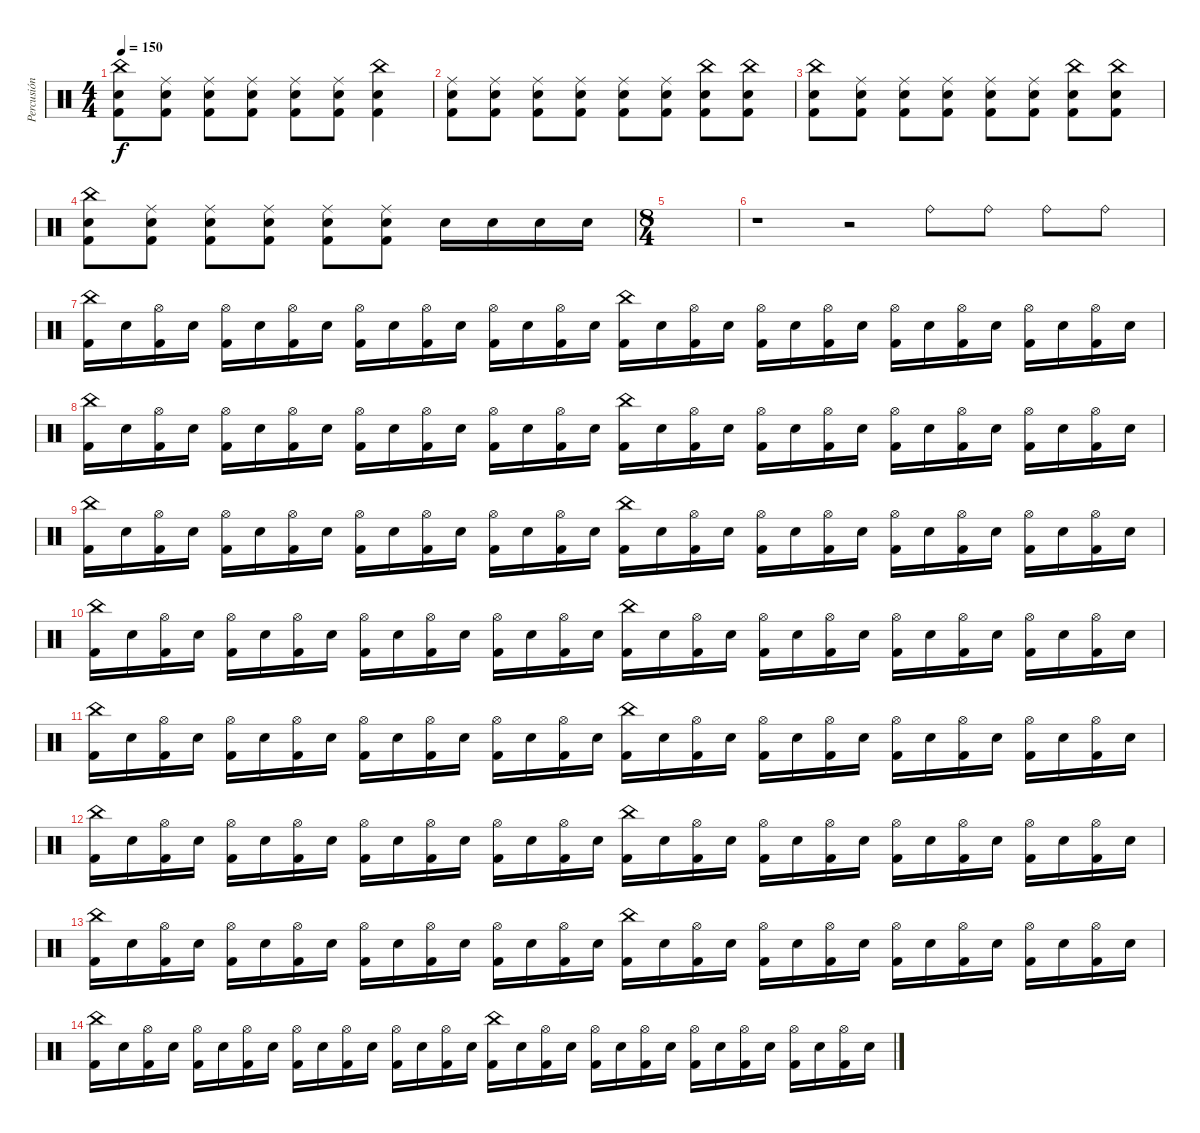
\track ("Percusión" "Percusión") {instrument percussion}
\staff {score}
\articulation defaults
\ts (4 4)
\tempo 150
\clef neutral
\ks c
("China (hit)" "Electric Snare (hit)" "Kick (hit) 2").8{dy f} ("Ride (middle)" "Electric Snare (hit)" "Kick (hit) 2").8 ("Ride (middle)" "Electric Snare (hit)" "Kick (hit) 2").8 ("Ride (middle)" "Electric Snare (hit)" "Kick (hit) 2").8 ("Ride (middle)" "Electric Snare (hit)" "Kick (hit) 2").8 ("Ride (middle)" "Electric Snare (hit)" "Kick (hit) 2").8 ("China (hit)" "Electric Snare (hit)" "Kick (hit) 2").4 |
("Ride (middle)" "Electric Snare (hit)" "Kick (hit) 2").8 ("Ride (middle)" "Electric Snare (hit)" "Kick (hit) 2").8 ("Ride (middle)" "Electric Snare (hit)" "Kick (hit) 2").8 ("Ride (middle)" "Electric Snare (hit)" "Kick (hit) 2").8 ("Ride (middle)" "Electric Snare (hit)" "Kick (hit) 2").8 ("Ride (middle)" "Electric Snare (hit)" "Kick (hit) 2").8 ("China (hit)" "Electric Snare (hit)" "Kick (hit) 2").8 ("China (hit)" "Electric Snare (hit)" "Kick (hit) 2").8 |
("China (hit)" "Electric Snare (hit)" "Kick (hit) 2").8 ("Ride (middle)" "Electric Snare (hit)" "Kick (hit) 2").8 ("Ride (middle)" "Electric Snare (hit)" "Kick (hit) 2").8 ("Ride (middle)" "Electric Snare (hit)" "Kick (hit) 2").8 ("Ride (middle)" "Electric Snare (hit)" "Kick (hit) 2").8 ("Ride (middle)" "Electric Snare (hit)" "Kick (hit) 2").8 ("China (hit)" "Electric Snare (hit)" "Kick (hit) 2").8 ("China (hit)" "Electric Snare (hit)" "Kick (hit) 2").8 |
("China (hit)" "Electric Snare (hit)" "Kick (hit) 2").8 ("Ride (middle)" "Electric Snare (hit)" "Kick (hit) 2").8 ("Ride (middle)" "Electric Snare (hit)" "Kick (hit) 2").8 ("Ride (middle)" "Electric Snare (hit)" "Kick (hit) 2").8 ("Ride (middle)" "Electric Snare (hit)" "Kick (hit) 2").8 ("Ride (middle)" "Electric Snare (hit)" "Kick (hit) 2").8 "Electric Snare (hit)".16 "Electric Snare (hit)".16 "Electric Snare (hit)".16 "Electric Snare (hit)".16 |
\ts (8 4)
|
r.1 r.2 "Ride (bell)".8 "Ride (bell)".8 "Ride (bell)".8 "Ride (bell)".8 |
("China (hit)" "Kick (hit) 2").16 "Electric Snare (hit)".16 ("Hi-Hat (open)" "Kick (hit) 2").16 "Electric Snare (hit)".16 ("Hi-Hat (open)" "Kick (hit) 2").16 "Electric Snare (hit)".16 ("Hi-Hat (open)" "Kick (hit) 2").16 "Electric Snare (hit)".16 ("Hi-Hat (open)" "Kick (hit) 2").16 "Electric Snare (hit)".16 ("Hi-Hat (open)" "Kick (hit) 2").16 "Electric Snare (hit)".16 ("Hi-Hat (open)" "Kick (hit) 2").16 "Electric Snare (hit)".16 ("Hi-Hat (open)" "Kick (hit) 2").16 "Electric Snare (hit)".16 ("China (hit)" "Kick (hit) 2").16 "Electric Snare (hit)".16 ("Hi-Hat (open)" "Kick (hit) 2").16 "Electric Snare (hit)".16 ("Hi-Hat (open)" "Kick (hit) 2").16 "Electric Snare (hit)".16 ("Hi-Hat (open)" "Kick (hit) 2").16 "Electric Snare (hit)".16 ("Hi-Hat (open)" "Kick (hit) 2").16 "Electric Snare (hit)".16 ("Hi-Hat (open)" "Kick (hit) 2").16 "Electric Snare (hit)".16 ("Hi-Hat (open)" "Kick (hit) 2").16 "Electric Snare (hit)".16 ("Hi-Hat (open)" "Kick (hit) 2").16 "Electric Snare (hit)".16 |
("China (hit)" "Kick (hit) 2").16 "Electric Snare (hit)".16 ("Hi-Hat (open)" "Kick (hit) 2").16 "Electric Snare (hit)".16 ("Hi-Hat (open)" "Kick (hit) 2").16 "Electric Snare (hit)".16 ("Hi-Hat (open)" "Kick (hit) 2").16 "Electric Snare (hit)".16 ("Hi-Hat (open)" "Kick (hit) 2").16 "Electric Snare (hit)".16 ("Hi-Hat (open)" "Kick (hit) 2").16 "Electric Snare (hit)".16 ("Hi-Hat (open)" "Kick (hit) 2").16 "Electric Snare (hit)".16 ("Hi-Hat (open)" "Kick (hit) 2").16 "Electric Snare (hit)".16 ("China (hit)" "Kick (hit) 2").16 "Electric Snare (hit)".16 ("Hi-Hat (open)" "Kick (hit) 2").16 "Electric Snare (hit)".16 ("Hi-Hat (open)" "Kick (hit) 2").16 "Electric Snare (hit)".16 ("Hi-Hat (open)" "Kick (hit) 2").16 "Electric Snare (hit)".16 ("Hi-Hat (open)" "Kick (hit) 2").16 "Electric Snare (hit)".16 ("Hi-Hat (open)" "Kick (hit) 2").16 "Electric Snare (hit)".16 ("Hi-Hat (open)" "Kick (hit) 2").16 "Electric Snare (hit)".16 ("Hi-Hat (open)" "Kick (hit) 2").16 "Electric Snare (hit)".16 |
("China (hit)" "Kick (hit) 2").16 "Electric Snare (hit)".16 ("Hi-Hat (open)" "Kick (hit) 2").16 "Electric Snare (hit)".16 ("Hi-Hat (open)" "Kick (hit) 2").16 "Electric Snare (hit)".16 ("Hi-Hat (open)" "Kick (hit) 2").16 "Electric Snare (hit)".16 ("Hi-Hat (open)" "Kick (hit) 2").16 "Electric Snare (hit)".16 ("Hi-Hat (open)" "Kick (hit) 2").16 "Electric Snare (hit)".16 ("Hi-Hat (open)" "Kick (hit) 2").16 "Electric Snare (hit)".16 ("Hi-Hat (open)" "Kick (hit) 2").16 "Electric Snare (hit)".16 ("China (hit)" "Kick (hit) 2").16 "Electric Snare (hit)".16 ("Hi-Hat (open)" "Kick (hit) 2").16 "Electric Snare (hit)".16 ("Hi-Hat (open)" "Kick (hit) 2").16 "Electric Snare (hit)".16 ("Hi-Hat (open)" "Kick (hit) 2").16 "Electric Snare (hit)".16 ("Hi-Hat (open)" "Kick (hit) 2").16 "Electric Snare (hit)".16 ("Hi-Hat (open)" "Kick (hit) 2").16 "Electric Snare (hit)".16 ("Hi-Hat (open)" "Kick (hit) 2").16 "Electric Snare (hit)".16 ("Hi-Hat (open)" "Kick (hit) 2").16 "Electric Snare (hit)".16 |
("China (hit)" "Kick (hit) 2").16 "Electric Snare (hit)".16 ("Hi-Hat (open)" "Kick (hit) 2").16 "Electric Snare (hit)".16 ("Hi-Hat (open)" "Kick (hit) 2").16 "Electric Snare (hit)".16 ("Hi-Hat (open)" "Kick (hit) 2").16 "Electric Snare (hit)".16 ("Hi-Hat (open)" "Kick (hit) 2").16 "Electric Snare (hit)".16 ("Hi-Hat (open)" "Kick (hit) 2").16 "Electric Snare (hit)".16 ("Hi-Hat (open)" "Kick (hit) 2").16 "Electric Snare (hit)".16 ("Hi-Hat (open)" "Kick (hit) 2").16 "Electric Snare (hit)".16 ("China (hit)" "Kick (hit) 2").16 "Electric Snare (hit)".16 ("Hi-Hat (open)" "Kick (hit) 2").16 "Electric Snare (hit)".16 ("Hi-Hat (open)" "Kick (hit) 2").16 "Electric Snare (hit)".16 ("Hi-Hat (open)" "Kick (hit) 2").16 "Electric Snare (hit)".16 ("Hi-Hat (open)" "Kick (hit) 2").16 "Electric Snare (hit)".16 ("Hi-Hat (open)" "Kick (hit) 2").16 "Electric Snare (hit)".16 ("Hi-Hat (open)" "Kick (hit) 2").16 "Electric Snare (hit)".16 ("Hi-Hat (open)" "Kick (hit) 2").16 "Electric Snare (hit)".16 |
("China (hit)" "Kick (hit) 2").16 "Electric Snare (hit)".16 ("Hi-Hat (open)" "Kick (hit) 2").16 "Electric Snare (hit)".16 ("Hi-Hat (open)" "Kick (hit) 2").16 "Electric Snare (hit)".16 ("Hi-Hat (open)" "Kick (hit) 2").16 "Electric Snare (hit)".16 ("Hi-Hat (open)" "Kick (hit) 2").16 "Electric Snare (hit)".16 ("Hi-Hat (open)" "Kick (hit) 2").16 "Electric Snare (hit)".16 ("Hi-Hat (open)" "Kick (hit) 2").16 "Electric Snare (hit)".16 ("Hi-Hat (open)" "Kick (hit) 2").16 "Electric Snare (hit)".16 ("China (hit)" "Kick (hit) 2").16 "Electric Snare (hit)".16 ("Hi-Hat (open)" "Kick (hit) 2").16 "Electric Snare (hit)".16 ("Hi-Hat (open)" "Kick (hit) 2").16 "Electric Snare (hit)".16 ("Hi-Hat (open)" "Kick (hit) 2").16 "Electric Snare (hit)".16 ("Hi-Hat (open)" "Kick (hit) 2").16 "Electric Snare (hit)".16 ("Hi-Hat (open)" "Kick (hit) 2").16 "Electric Snare (hit)".16 ("Hi-Hat (open)" "Kick (hit) 2").16 "Electric Snare (hit)".16 ("Hi-Hat (open)" "Kick (hit) 2").16 "Electric Snare (hit)".16 |
("China (hit)" "Kick (hit) 2").16 "Electric Snare (hit)".16 ("Hi-Hat (open)" "Kick (hit) 2").16 "Electric Snare (hit)".16 ("Hi-Hat (open)" "Kick (hit) 2").16 "Electric Snare (hit)".16 ("Hi-Hat (open)" "Kick (hit) 2").16 "Electric Snare (hit)".16 ("Hi-Hat (open)" "Kick (hit) 2").16 "Electric Snare (hit)".16 ("Hi-Hat (open)" "Kick (hit) 2").16 "Electric Snare (hit)".16 ("Hi-Hat (open)" "Kick (hit) 2").16 "Electric Snare (hit)".16 ("Hi-Hat (open)" "Kick (hit) 2").16 "Electric Snare (hit)".16 ("China (hit)" "Kick (hit) 2").16 "Electric Snare (hit)".16 ("Hi-Hat (open)" "Kick (hit) 2").16 "Electric Snare (hit)".16 ("Hi-Hat (open)" "Kick (hit) 2").16 "Electric Snare (hit)".16 ("Hi-Hat (open)" "Kick (hit) 2").16 "Electric Snare (hit)".16 ("Hi-Hat (open)" "Kick (hit) 2").16 "Electric Snare (hit)".16 ("Hi-Hat (open)" "Kick (hit) 2").16 "Electric Snare (hit)".16 ("Hi-Hat (open)" "Kick (hit) 2").16 "Electric Snare (hit)".16 ("Hi-Hat (open)" "Kick (hit) 2").16 "Electric Snare (hit)".16 |
("China (hit)" "Kick (hit) 2").16 "Electric Snare (hit)".16 ("Hi-Hat (open)" "Kick (hit) 2").16 "Electric Snare (hit)".16 ("Hi-Hat (open)" "Kick (hit) 2").16 "Electric Snare (hit)".16 ("Hi-Hat (open)" "Kick (hit) 2").16 "Electric Snare (hit)".16 ("Hi-Hat (open)" "Kick (hit) 2").16 "Electric Snare (hit)".16 ("Hi-Hat (open)" "Kick (hit) 2").16 "Electric Snare (hit)".16 ("Hi-Hat (open)" "Kick (hit) 2").16 "Electric Snare (hit)".16 ("Hi-Hat (open)" "Kick (hit) 2").16 "Electric Snare (hit)".16 ("China (hit)" "Kick (hit) 2").16 "Electric Snare (hit)".16 ("Hi-Hat (open)" "Kick (hit) 2").16 "Electric Snare (hit)".16 ("Hi-Hat (open)" "Kick (hit) 2").16 "Electric Snare (hit)".16 ("Hi-Hat (open)" "Kick (hit) 2").16 "Electric Snare (hit)".16 ("Hi-Hat (open)" "Kick (hit) 2").16 "Electric Snare (hit)".16 ("Hi-Hat (open)" "Kick (hit) 2").16 "Electric Snare (hit)".16 ("Hi-Hat (open)" "Kick (hit) 2").16 "Electric Snare (hit)".16 ("Hi-Hat (open)" "Kick (hit) 2").16 "Electric Snare (hit)".16 |
("China (hit)" "Kick (hit) 2").16 "Electric Snare (hit)".16 ("Hi-Hat (open)" "Kick (hit) 2").16 "Electric Snare (hit)".16 ("Hi-Hat (open)" "Kick (hit) 2").16 "Electric Snare (hit)".16 ("Hi-Hat (open)" "Kick (hit) 2").16 "Electric Snare (hit)".16 ("Hi-Hat (open)" "Kick (hit) 2").16 "Electric Snare (hit)".16 ("Hi-Hat (open)" "Kick (hit) 2").16 "Electric Snare (hit)".16 ("Hi-Hat (open)" "Kick (hit) 2").16 "Electric Snare (hit)".16 ("Hi-Hat (open)" "Kick (hit) 2").16 "Electric Snare (hit)".16 ("China (hit)" "Kick (hit) 2").16 "Electric Snare (hit)".16 ("Hi-Hat (open)" "Kick (hit) 2").16 "Electric Snare (hit)".16 ("Hi-Hat (open)" "Kick (hit) 2").16 "Electric Snare (hit)".16 ("Hi-Hat (open)" "Kick (hit) 2").16 "Electric Snare (hit)".16 ("Hi-Hat (open)" "Kick (hit) 2").16 "Electric Snare (hit)".16 ("Hi-Hat (open)" "Kick (hit) 2").16 "Electric Snare (hit)".16 ("Hi-Hat (open)" "Kick (hit) 2").16 "Electric Snare (hit)".16 ("Hi-Hat (open)" "Kick (hit) 2").16 "Electric Snare (hit)".16
